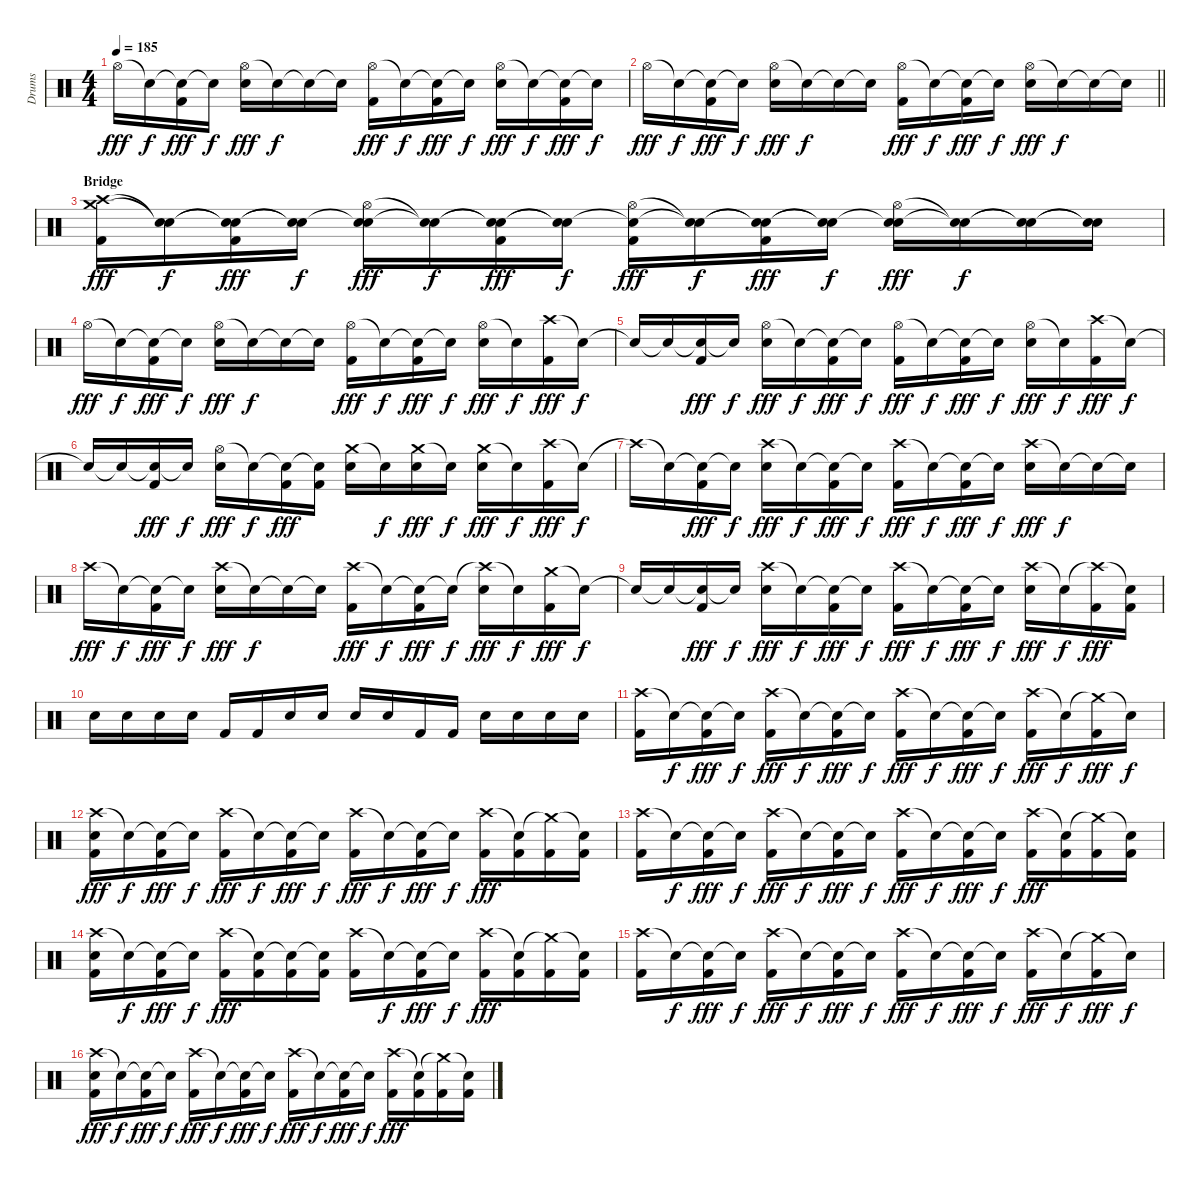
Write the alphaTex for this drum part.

\track ("Drums" "Drums") {instrument percussion}
\staff {score}
\articulation defaults
\ts (4 4)
\tempo 185
\clef neutral
\ks c "Hi-Hat (open)".16{dy fff} "Snare (hit)"{t}.16{dy f}
("Snare (hit)"{t} "Kick (hit) 2").16{dy fff} "Snare (hit)"{t}.16{dy f} ("Hi-Hat (open)" "Electric Snare (hit)").16{dy fff} "Snare (hit)"{t}.16{dy f} "Snare (hit)"{t}.16 "Snare (hit)"{t}.16 ("Hi-Hat (open)" "Kick (hit) 2").16{dy fff} "Snare (hit)"{t}.16{dy f} ("Snare (hit)"{t} "Kick (hit) 2").16{dy fff} "Snare (hit)"{t}.16{dy f} ("Hi-Hat (open)" "Electric Snare (hit)").16{dy fff} "Snare (hit)"{t}.16{dy f} ("Snare (hit)"{t} "Kick (hit) 2").16{dy fff} "Snare (hit)"{t}.16{dy f} |
\barLineRight lightlight "Hi-Hat (open)".16{dy fff} "Snare (hit)"{t}.16{dy f}
("Snare (hit)"{t} "Kick (hit) 2").16{dy fff} "Snare (hit)"{t}.16{dy f} ("Hi-Hat (open)" "Electric Snare (hit)").16{dy fff} "Snare (hit)"{t}.16{dy f} "Snare (hit)"{t}.16 "Snare (hit)"{t}.16 ("Hi-Hat (open)" "Kick (hit) 2").16{dy fff} "Snare (hit)"{t}.16{dy f} ("Snare (hit)"{t} "Kick (hit) 2").16{dy fff} "Snare (hit)"{t}.16{dy f} ("Hi-Hat (open)" "Electric Snare (hit)").16{dy fff} "Snare (hit)"{t}.16{dy f} "Snare (hit)"{t}.16 "Snare (hit)"{t}.16 |
\section ("" "Bridge")
("Crash medium (hit)" "Crash high (hit)" "Kick (hit) 2").16{dy fff} ("Snare (hit)"{t} "Snare (hit)"{t}).16{dy f} ("Snare (hit)"{t} "Snare (hit)"{t} "Kick (hit) 2").16{dy fff} ("Snare (hit)"{t} "Snare (hit)"{t}).16{dy f} ("Snare (hit)"{t} "Hi-Hat (open)" "Electric Snare (hit)").16{dy fff} ("Snare (hit)"{t} "Snare (hit)"{t}).16{dy f} ("Snare (hit)"{t} "Snare (hit)"{t} "Kick (hit) 2").16{dy fff} ("Snare (hit)"{t} "Snare (hit)"{t}).16{dy f} ("Snare (hit)"{t} "Hi-Hat (open)" "Kick (hit) 2").16{dy fff} ("Snare (hit)"{t} "Snare (hit)"{t}).16{dy f} ("Snare (hit)"{t} "Snare (hit)"{t} "Kick (hit) 2").16{dy fff} ("Snare (hit)"{t} "Snare (hit)"{t}).16{dy f} ("Snare (hit)"{t} "Hi-Hat (open)" "Electric Snare (hit)").16{dy fff} ("Snare (hit)"{t} "Snare (hit)"{t}).16{dy f} ("Snare (hit)"{t} "Snare (hit)"{t}).16 ("Snare (hit)"{t} "Snare (hit)"{t}).16 |
"Hi-Hat (open)".16{dy fff} "Snare (hit)"{t}.16{dy f} ("Snare (hit)"{t} "Kick (hit) 2").16{dy fff} "Snare (hit)"{t}.16{dy f} ("Hi-Hat (open)" "Electric Snare (hit)").16{dy fff} "Snare (hit)"{t}.16{dy f} "Snare (hit)"{t}.16 "Snare (hit)"{t}.16 ("Hi-Hat (open)" "Kick (hit) 2").16{dy fff} "Snare (hit)"{t}.16{dy f} ("Snare (hit)"{t} "Kick (hit) 2").16{dy fff} "Snare (hit)"{t}.16{dy f} ("Hi-Hat (open)" "Electric Snare (hit)").16{dy fff} "Snare (hit)"{t}.16{dy f} ("Crash high (hit)" "Kick (hit) 2").16{dy fff} "Snare (hit)"{t}.16{dy f} |
"Snare (hit)"{t}.16 "Snare (hit)"{t}.16 ("Snare (hit)"{t} "Kick (hit) 2").16{dy fff} "Snare (hit)"{t}.16{dy f} ("Hi-Hat (open)" "Electric Snare (hit)").16{dy fff} "Snare (hit)"{t}.16{dy f} ("Snare (hit)"{t} "Kick (hit) 2").16{dy fff} "Snare (hit)"{t}.16{dy f} ("Hi-Hat (open)" "Kick (hit) 2").16{dy fff} "Snare (hit)"{t}.16{dy f} ("Snare (hit)"{t} "Kick (hit) 2").16{dy fff} "Snare (hit)"{t}.16{dy f} ("Hi-Hat (open)" "Electric Snare (hit)").16{dy fff} "Snare (hit)"{t}.16{dy f} ("Crash high (hit)" "Kick (hit) 2").16{dy fff} "Snare (hit)"{t}.16{dy f} |
"Snare (hit)"{t}.16 "Snare (hit)"{t}.16 ("Snare (hit)"{t} "Kick (hit) 2").16{dy fff} "Snare (hit)"{t}.16{dy f} ("Hi-Hat (open)" "Electric Snare (hit)").16{dy fff} "Snare (hit)"{t}.16{dy f} ("Snare (hit)"{t} "Kick (hit) 2").16{dy fff} ("Snare (hit)"{t} "Kick (hit) 2").16 ("Crash medium (hit)" "Electric Snare (hit)").16 "Snare (hit)"{t}.16{dy f} ("Crash medium (hit)" "Electric Snare (hit)").16{dy fff} "Snare (hit)"{t}.16{dy f} ("Crash medium (hit)" "Electric Snare (hit)").16{dy fff} "Snare (hit)"{t}.16{dy f} ("Crash high (hit)" "Kick (hit) 2").16{dy fff} "Snare (hit)"{t}.16{dy f} |
"Crash high (hit)"{t}.16 "Snare (hit)"{t}.16 ("Snare (hit)"{t} "Kick (hit) 2").16{dy fff} "Snare (hit)"{t}.16{dy f} ("Crash high (hit)" "Electric Snare (hit)").16{dy fff} "Snare (hit)"{t}.16{dy f} ("Snare (hit)"{t} "Kick (hit) 2").16{dy fff} "Snare (hit)"{t}.16{dy f} ("Crash high (hit)" "Kick (hit) 2").16{dy fff} "Snare (hit)"{t}.16{dy f} ("Snare (hit)"{t} "Kick (hit) 2").16{dy fff} "Snare (hit)"{t}.16{dy f} ("Crash high (hit)" "Electric Snare (hit)").16{dy fff} "Snare (hit)"{t}.16{dy f} "Snare (hit)"{t}.16 "Snare (hit)"{t}.16 |
"Crash high (hit)".16{dy fff} "Snare (hit)"{t}.16{dy f} ("Snare (hit)"{t} "Kick (hit) 2").16{dy fff} "Snare (hit)"{t}.16{dy f} ("Crash high (hit)" "Electric Snare (hit)").16{dy fff} "Snare (hit)"{t}.16{dy f} "Snare (hit)"{t}.16 "Snare (hit)"{t}.16 ("Crash high (hit)" "Kick (hit) 2").16{dy fff} "Snare (hit)"{t}.16{dy f} ("Snare (hit)"{t} "Kick (hit) 2").16{dy fff} "Snare (hit)"{t}.16{dy f} ("Crash high (hit)"{t} "Electric Snare (hit)").16{dy fff} "Snare (hit)"{t}.16{dy f} ("Crash medium (hit)" "Kick (hit) 2").16{dy fff} "Snare (hit)"{t}.16{dy f} |
"Snare (hit)"{t}.16 "Snare (hit)"{t}.16 ("Snare (hit)"{t} "Kick (hit) 2").16{dy fff} "Snare (hit)"{t}.16{dy f} ("Crash high (hit)" "Electric Snare (hit)").16{dy fff} "Snare (hit)"{t}.16{dy f} ("Snare (hit)"{t} "Kick (hit) 2").16{dy fff} "Snare (hit)"{t}.16{dy f} ("Crash high (hit)" "Kick (hit) 2").16{dy fff} "Snare (hit)"{t}.16{dy f} ("Snare (hit)"{t} "Kick (hit) 2").16{dy fff} "Snare (hit)"{t}.16{dy f} ("Crash high (hit)" "Electric Snare (hit)").16{dy fff} "Snare (hit)"{t}.16{dy f} ("Crash high (hit)"{t} "Kick (hit) 2").16{dy fff} ("Snare (hit)"{t} "Kick (hit) 2").16 |
"Electric Snare (hit)".16 "Electric Snare (hit)".16 "Electric Snare (hit)".16 "Electric Snare (hit)".16 "Kick (hit) 2".16 "Kick (hit) 2".16 "Electric Snare (hit)".16 "Electric Snare (hit)".16 "Electric Snare (hit)".16 "Electric Snare (hit)".16 "Kick (hit) 2".16 "Kick (hit) 2".16 "Electric Snare (hit)".16 "Electric Snare (hit)".16 "Electric Snare (hit)".16 "Electric Snare (hit)".16 |
("Crash high (hit)" "Kick (hit) 2").16 "Snare (hit)"{t}.16{dy f} ("Snare (hit)"{t} "Kick (hit) 2").16{dy fff} "Snare (hit)"{t}.16{dy f} ("Crash high (hit)" "Kick (hit) 2").16{dy fff} "Snare (hit)"{t}.16{dy f} ("Snare (hit)"{t} "Kick (hit) 2").16{dy fff} "Snare (hit)"{t}.16{dy f} ("Crash high (hit)" "Kick (hit) 2").16{dy fff} "Snare (hit)"{t}.16{dy f} ("Snare (hit)"{t} "Kick (hit) 2").16{dy fff} "Snare (hit)"{t}.16{dy f} ("Crash high (hit)" "Kick (hit) 2").16{dy fff} "Snare (hit)"{t}.16{dy f} ("Crash medium (hit)"{t} "Kick (hit) 2").16{dy fff} "Snare (hit)"{t}.16{dy f} |
("Crash high (hit)" "Electric Snare (hit)" "Kick (hit) 2").16{dy fff} "Snare (hit)"{t}.16{dy f} ("Snare (hit)"{t} "Kick (hit) 2").16{dy fff} "Snare (hit)"{t}.16{dy f} ("Crash high (hit)" "Kick (hit) 2").16{dy fff} "Snare (hit)"{t}.16{dy f} ("Snare (hit)"{t} "Kick (hit) 2").16{dy fff} "Snare (hit)"{t}.16{dy f} ("Crash high (hit)" "Kick (hit) 2").16{dy fff} "Snare (hit)"{t}.16{dy f} ("Snare (hit)"{t} "Kick (hit) 2").16{dy fff} "Snare (hit)"{t}.16{dy f} ("Crash high (hit)" "Kick (hit) 2").16{dy fff} ("Snare (hit)"{t} "Kick (hit) 2").16 ("Crash medium (hit)"{t} "Kick (hit) 2").16 ("Snare (hit)"{t} "Kick (hit) 2").16 |
("Crash high (hit)" "Kick (hit) 2").16 "Snare (hit)"{t}.16{dy f} ("Snare (hit)"{t} "Kick (hit) 2").16{dy fff} "Snare (hit)"{t}.16{dy f} ("Crash high (hit)" "Kick (hit) 2").16{dy fff} "Snare (hit)"{t}.16{dy f} ("Snare (hit)"{t} "Kick (hit) 2").16{dy fff} "Snare (hit)"{t}.16{dy f} ("Crash high (hit)" "Kick (hit) 2").16{dy fff} "Snare (hit)"{t}.16{dy f} ("Snare (hit)"{t} "Kick (hit) 2").16{dy fff} "Snare (hit)"{t}.16{dy f} ("Crash high (hit)" "Kick (hit) 2").16{dy fff} ("Snare (hit)"{t} "Kick (hit) 2").16 ("Crash medium (hit)"{t} "Kick (hit) 2").16 ("Snare (hit)"{t} "Kick (hit) 2").16 |
("Crash high (hit)" "Electric Snare (hit)" "Kick (hit) 2").16 "Snare (hit)"{t}.16{dy f} ("Snare (hit)"{t} "Kick (hit) 2").16{dy fff} "Snare (hit)"{t}.16{dy f} ("Crash high (hit)" "Kick (hit) 2").16{dy fff} ("Snare (hit)"{t} "Kick (hit) 2").16 ("Snare (hit)"{t} "Kick (hit) 2").16 ("Snare (hit)"{t} "Kick (hit) 2").16 ("Crash high (hit)" "Kick (hit) 2").16 "Snare (hit)"{t}.16{dy f} ("Snare (hit)"{t} "Kick (hit) 2").16{dy fff} "Snare (hit)"{t}.16{dy f} ("Crash high (hit)" "Kick (hit) 2").16{dy fff} ("Snare (hit)"{t} "Kick (hit) 2").16 ("Crash medium (hit)"{t} "Kick (hit) 2").16 ("Snare (hit)"{t} "Kick (hit) 2").16 |
("Crash high (hit)" "Kick (hit) 2").16 "Snare (hit)"{t}.16{dy f} ("Snare (hit)"{t} "Kick (hit) 2").16{dy fff} "Snare (hit)"{t}.16{dy f} ("Crash high (hit)" "Kick (hit) 2").16{dy fff} "Snare (hit)"{t}.16{dy f} ("Snare (hit)"{t} "Kick (hit) 2").16{dy fff} "Snare (hit)"{t}.16{dy f} ("Crash high (hit)" "Kick (hit) 2").16{dy fff} "Snare (hit)"{t}.16{dy f} ("Snare (hit)"{t} "Kick (hit) 2").16{dy fff} "Snare (hit)"{t}.16{dy f} ("Crash high (hit)" "Kick (hit) 2").16{dy fff} "Snare (hit)"{t}.16{dy f} ("Crash medium (hit)"{t} "Kick (hit) 2").16{dy fff} "Snare (hit)"{t}.16{dy f} |
("Crash high (hit)" "Electric Snare (hit)" "Kick (hit) 2").16{dy fff} "Snare (hit)"{t}.16{dy f} ("Snare (hit)"{t} "Kick (hit) 2").16{dy fff} "Snare (hit)"{t}.16{dy f} ("Crash high (hit)" "Kick (hit) 2").16{dy fff} "Snare (hit)"{t}.16{dy f} ("Snare (hit)"{t} "Kick (hit) 2").16{dy fff} "Snare (hit)"{t}.16{dy f} ("Crash high (hit)" "Kick (hit) 2").16{dy fff} "Snare (hit)"{t}.16{dy f} ("Snare (hit)"{t} "Kick (hit) 2").16{dy fff} "Snare (hit)"{t}.16{dy f} ("Crash high (hit)" "Kick (hit) 2").16{dy fff} ("Snare (hit)"{t} "Kick (hit) 2").16 ("Crash medium (hit)"{t} "Kick (hit) 2").16 ("Snare (hit)"{t} "Kick (hit) 2").16
